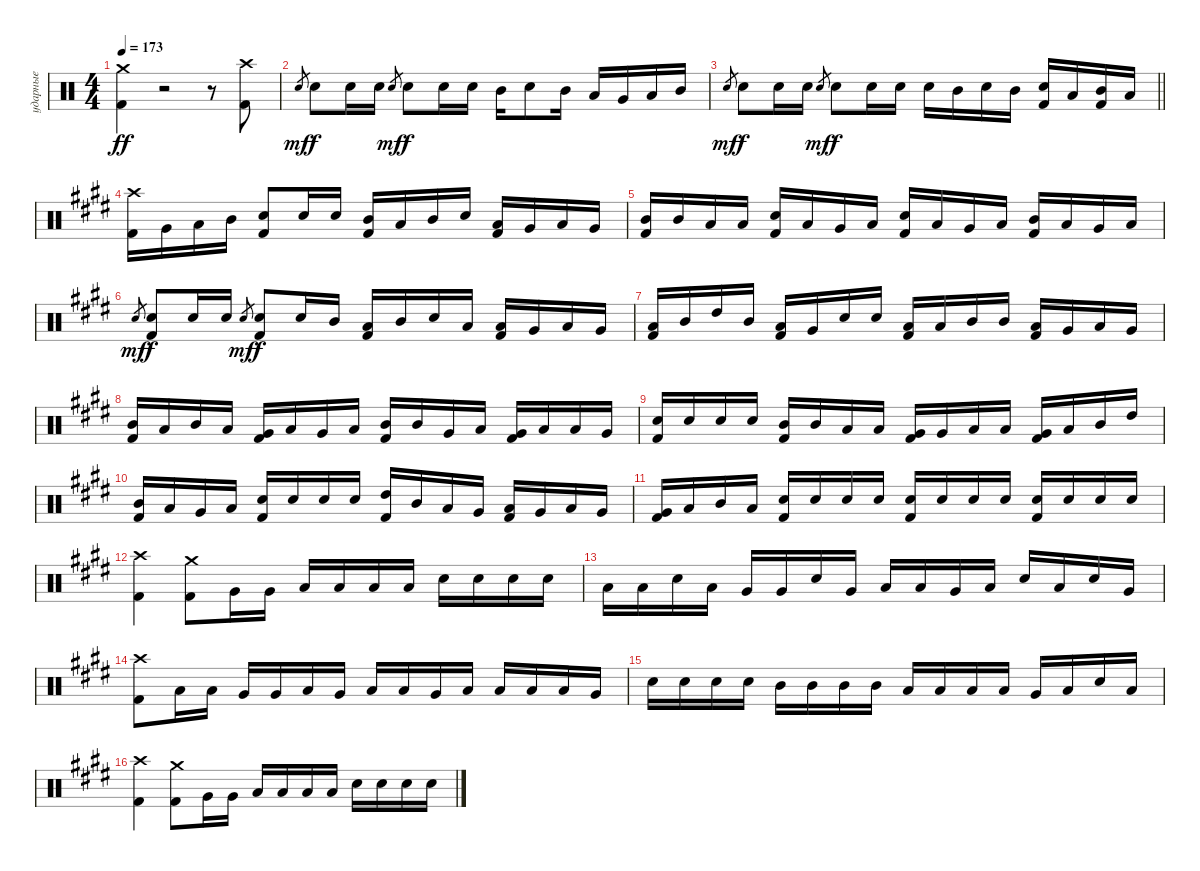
\track ("ударные" "ударные") {instrument percussion}
\staff {score}
\articulation defaults
\ts (4 4)
\tempo 173
\clef neutral
\ks aminor
("Kick (hit) 2" "Crash medium (hit)").4{dy ff} r.2 r.8 ("Kick (hit) 2" "Crash high (hit)").8 |
"Snare (hit) 2".8{gr dy mf} "Snare (hit) 2".8{dy f} "Snare (hit) 2".16 "Snare (hit) 2".16 "Snare (hit) 2".8{gr dy mf} "Snare (hit) 2".8{dy f} "Snare (hit) 2".16 "Snare (hit) 2".16 "Mid Tom (hit)".16 "Snare (hit) 2".8 "Mid Tom (hit)".16 "Low Tom (hit)".16 "Very Low Tom (hit)".16 "Low Tom (hit)".16 "Mid Tom (hit)".16 |
\barLineRight lightlight "Snare (hit) 2".8{gr dy mf} "Snare (hit) 2".8{dy f} "Snare (hit) 2".16 "Snare (hit) 2".16 "Snare (hit) 2".8{gr dy mf} "Snare (hit) 2".8{dy f} "Snare (hit) 2".16 "Snare (hit) 2".16 "Snare (hit) 2".16 "Mid Tom (hit)".16 "Snare (hit) 2".16 "Mid Tom (hit)".16
("Snare (hit) 2" "Kick (hit) 2").16 "Low Tom (hit)".16 ("Mid Tom (hit)" "Kick (hit) 2").16 "Low Tom (hit)".16 |
\section ("" "")
\ks c#minor
("Kick (hit) 2" "Crash high (hit)").16 "Very Low Tom (hit)".16 "Low Tom (hit)".16 "Mid Tom (hit)".16 ("Snare (hit) 2" "Kick (hit) 2").8 "Snare (hit) 2".16 "Snare (hit) 2".16 ("Mid Tom (hit)" "Kick (hit) 2").16 "Low Tom (hit)".16 "Mid Tom (hit)".16 "Snare (hit) 2".16 ("Low Tom (hit)" "Kick (hit) 2").16 "Very Low Tom (hit)".16 "Low Floor Tom (hit)".16 "Very Low Tom (hit)".16 |
("Mid Tom (hit)" "Kick (hit) 2").16 "Mid Tom (hit)".16 "Low Tom (hit)".16 "Low Tom (hit)".16 ("Snare (hit) 2" "Kick (hit) 2").16 "Low Tom (hit)".16 "Very Low Tom (hit)".16 "Low Floor Tom (hit)".16 ("Snare (hit) 2" "Kick (hit) 2").16 "Low Floor Tom (hit)".16 "Very Low Tom (hit)".16 "Low Tom (hit)".16 ("Mid Tom (hit)" "Kick (hit) 2").16 "Low Tom (hit)".16 "Very Low Tom (hit)".16 "Low Tom (hit)".16 |
"Snare (hit) 2".8{gr dy mf} ("Snare (hit) 2" "Kick (hit) 2").8{dy f} "Snare (hit) 2".16 "Snare (hit) 2".16 "Snare (hit) 2".8{gr dy mf} ("Snare (hit) 2" "Kick (hit) 2").8{dy f} "Snare (hit) 2".16 "Mid Tom (hit)".16 ("Low Tom (hit)" "Kick (hit) 2").16 "Mid Tom (hit)".16 "Snare (hit) 2".16 "Low Tom (hit)".16 ("Low Tom (hit)" "Kick (hit) 2").16 "Very Low Tom (hit)".16 "Low Tom (hit)".16 "Very Low Tom (hit)".16 |
("Low Tom (hit)" "Kick (hit) 2").16 "Mid Tom (hit)".16 "High Tom (hit)".16 "Mid Tom (hit)".16 ("Low Tom (hit)" "Kick (hit) 2").16 "Very Low Tom (hit)".16 "Snare (hit) 2".16 "Snare (hit) 2".16 ("Low Tom (hit)" "Kick (hit) 2").16 "Low Tom (hit)".16 "Mid Tom (hit)".16 "Mid Tom (hit)".16 ("Low Tom (hit)" "Kick (hit) 2").16 "Very Low Tom (hit)".16 "Low Floor Tom (hit)".16 "Very Low Tom (hit)".16 |
("Mid Tom (hit)" "Kick (hit) 2").16 "Low Tom (hit)".16 "Mid Tom (hit)".16 "Low Tom (hit)".16 ("Very Low Tom (hit)" "Kick (hit) 2").16 "Low Floor Tom (hit)".16 "Very Low Tom (hit)".16 "Low Tom (hit)".16 ("Mid Tom (hit)" "Kick (hit) 2").16 "Mid Tom (hit)".16 "Very Low Tom (hit)".16 "Low Tom (hit)".16 ("Very Low Tom (hit)" "Kick (hit) 2").16 "Low Tom (hit)".16 "Low Floor Tom (hit)".16 "Very Low Tom (hit)".16 |
("Snare (hit) 2" "Kick (hit) 2").16 "Snare (hit) 2".16 "Snare (hit) 2".16 "Snare (hit) 2".16 ("Mid Tom (hit)" "Kick (hit) 2").16 "Mid Tom (hit)".16 "Low Tom (hit)".16 "Low Tom (hit)".16 ("Very Low Tom (hit)" "Kick (hit) 2").16 "Very Low Tom (hit)".16 "Low Floor Tom (hit)".16 "Low Floor Tom (hit)".16 ("Very Low Tom (hit)" "Kick (hit) 2").16 "Low Tom (hit)".16 "Mid Tom (hit)".16 "High Tom (hit)".16 |
("Mid Tom (hit)" "Kick (hit) 2").16 "Low Tom (hit)".16 "Very Low Tom (hit)".16 "Low Floor Tom (hit)".16 ("Snare (hit) 2" "Kick (hit) 2").16 "Snare (hit) 2".16 "Snare (hit) 2".16 "Snare (hit) 2".16 ("High Tom (hit)" "Kick (hit) 2").16 "Mid Tom (hit)".16 "Low Tom (hit)".16 "Very Low Tom (hit)".16 ("Low Floor Tom (hit)" "Kick (hit) 2").16 "Very Low Tom (hit)".16 "Low Floor Tom (hit)".16 "Very Low Tom (hit)".16 |
("Very Low Tom (hit)" "Kick (hit) 2").16 "Low Tom (hit)".16 "Mid Tom (hit)".16 "Low Tom (hit)".16 ("Snare (hit) 2" "Kick (hit) 2").16 "Snare (hit) 2".16 "Snare (hit) 2".16 "Snare (hit) 2".16 ("Snare (hit) 2" "Kick (hit) 2").16 "Snare (hit) 2".16 "Snare (hit) 2".16 "Snare (hit) 2".16 ("Snare (hit) 2" "Kick (hit) 2").16 "Snare (hit) 2".16 "Snare (hit) 2".16 "Snare (hit) 2".16 |
("Kick (hit) 2" "Crash high (hit)").4 ("Kick (hit) 2" "Crash medium (hit)").8 "Very Low Tom (hit)".16 "Very Low Tom (hit)".16 "Low Tom (hit)".16 "Low Tom (hit)".16 "Low Tom (hit)".16 "Low Tom (hit)".16 "Snare (hit) 2".16 "Snare (hit) 2".16 "Snare (hit) 2".16 "Snare (hit) 2".16 |
"Low Tom (hit)".16 "Low Tom (hit)".16 "Snare (hit) 2".16 "Low Tom (hit)".16 "Very Low Tom (hit)".16 "Very Low Tom (hit)".16 "Snare (hit) 2".16 "Very Low Tom (hit)".16 "Low Floor Tom (hit)".16 "Low Floor Tom (hit)".16 "Very Low Tom (hit)".16 "Low Floor Tom (hit)".16 "Snare (hit) 2".16 "Low Tom (hit)".16 "Snare (hit) 2".16 "Very Low Tom (hit)".16 |
("Kick (hit) 2" "Crash high (hit)").8 "Low Tom (hit)".16 "Low Tom (hit)".16 "Very Low Tom (hit)".16 "Very Low Tom (hit)".16 "Low Tom (hit)".16 "Very Low Tom (hit)".16 "Low Floor Tom (hit)".16 "Low Floor Tom (hit)".16 "Very Low Tom (hit)".16 "Low Floor Tom (hit)".16 "Low Tom (hit)".16 "Low Tom (hit)".16 "Low Tom (hit)".16 "Very Low Tom (hit)".16 |
"Snare (hit) 2".16 "Snare (hit) 2".16 "Snare (hit) 2".16 "Snare (hit) 2".16 "Mid Tom (hit)".16 "Mid Tom (hit)".16 "Mid Tom (hit)".16 "Mid Tom (hit)".16 "Low Tom (hit)".16 "Low Tom (hit)".16 "Low Tom (hit)".16 "Low Tom (hit)".16 "Very Low Tom (hit)".16 "Low Tom (hit)".16 "Snare (hit) 2".16 "Low Tom (hit)".16 |
("Kick (hit) 2" "Crash high (hit)").4 ("Kick (hit) 2" "Crash medium (hit)").8 "Very Low Tom (hit)".16 "Very Low Tom (hit)".16 "Low Tom (hit)".16 "Low Tom (hit)".16 "Low Tom (hit)".16 "Low Tom (hit)".16 "Snare (hit) 2".16 "Snare (hit) 2".16 "Snare (hit) 2".16 "Snare (hit) 2".16
